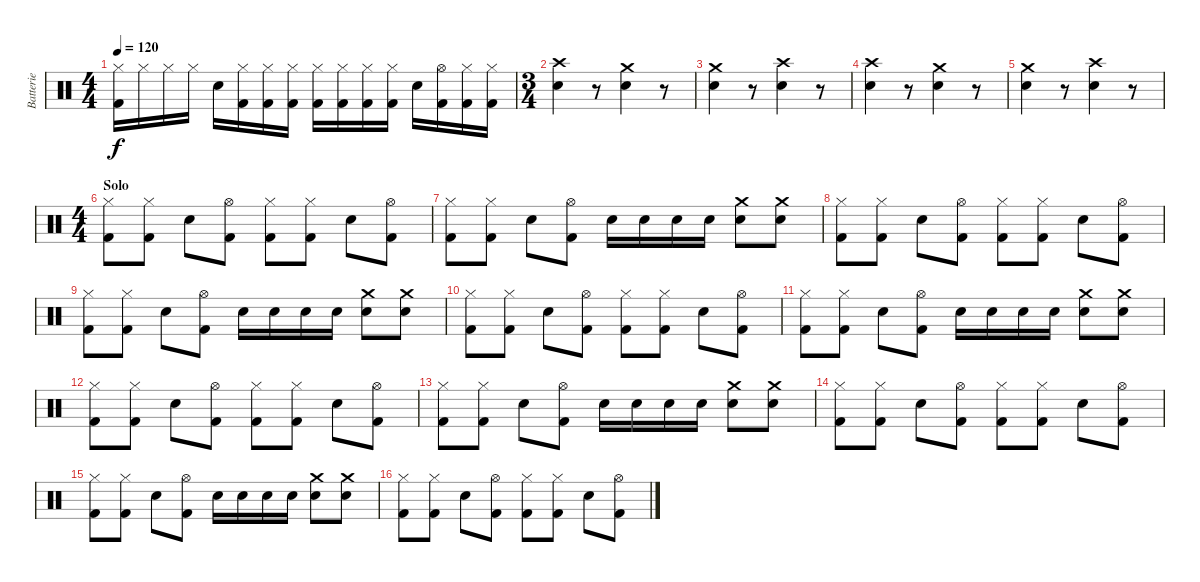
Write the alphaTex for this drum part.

\track ("Batterie" "Batterie") {instrument percussion}
\staff {score}
\articulation defaults
\ts (4 4)
\tempo 120
\clef neutral
\ks c
("Hi-Hat (closed)" "Kick (hit) 2").16{dy f} "Hi-Hat (closed)".16 "Hi-Hat (closed)".16 "Hi-Hat (closed)".16 "Snare (hit) 2".16 ("Hi-Hat (closed)" "Kick (hit) 2").16 ("Hi-Hat (closed)" "Kick (hit) 2").16 ("Hi-Hat (closed)" "Kick (hit) 2").16 ("Hi-Hat (closed)" "Kick (hit) 2").16 ("Hi-Hat (closed)" "Kick (hit) 2").16 ("Hi-Hat (closed)" "Kick (hit) 2").16 ("Hi-Hat (closed)" "Kick (hit) 2").16 "Snare (hit) 2".16 ("Hi-Hat (open)" "Kick (hit) 2").16 ("Hi-Hat (closed)" "Kick (hit) 2").16 ("Hi-Hat (closed)" "Kick (hit) 2").16 |
\ts (3 4)
("Crash high (hit)" "Snare (hit) 2").4 r.8 ("Crash medium (hit)" "Snare (hit) 2").4 r.8 |
("Crash medium (hit)" "Snare (hit) 2").4 r.8 ("Crash high (hit)" "Snare (hit) 2").4 r.8 |
("Crash high (hit)" "Snare (hit) 2").4 r.8 ("Crash medium (hit)" "Snare (hit) 2").4 r.8 |
("Crash medium (hit)" "Snare (hit) 2").4 r.8 ("Crash high (hit)" "Snare (hit) 2").4 r.8 |
\ts (4 4)
\section ("" "Solo")
("Hi-Hat (closed)" "Kick (hit) 2").8 ("Hi-Hat (closed)" "Kick (hit) 2").8 "Snare (hit) 2".8 ("Hi-Hat (open)" "Kick (hit) 2").8 ("Hi-Hat (closed)" "Kick (hit) 2").8 ("Hi-Hat (closed)" "Kick (hit) 2").8 "Snare (hit) 2".8 ("Hi-Hat (open)" "Kick (hit) 2").8 |
("Hi-Hat (closed)" "Kick (hit) 2").8 ("Hi-Hat (closed)" "Kick (hit) 2").8 "Snare (hit) 2".8 ("Hi-Hat (open)" "Kick (hit) 2").8 "Snare (hit) 2".16 "Snare (hit) 2".16 "Snare (hit) 2".16 "Snare (hit) 2".16 ("Crash medium (hit)" "Snare (hit) 2").8 ("Crash medium (hit)" "Snare (hit) 2").8 |
("Hi-Hat (closed)" "Kick (hit) 2").8 ("Hi-Hat (closed)" "Kick (hit) 2").8 "Snare (hit) 2".8 ("Hi-Hat (open)" "Kick (hit) 2").8 ("Hi-Hat (closed)" "Kick (hit) 2").8 ("Hi-Hat (closed)" "Kick (hit) 2").8 "Snare (hit) 2".8 ("Hi-Hat (open)" "Kick (hit) 2").8 |
("Hi-Hat (closed)" "Kick (hit) 2").8 ("Hi-Hat (closed)" "Kick (hit) 2").8 "Snare (hit) 2".8 ("Hi-Hat (open)" "Kick (hit) 2").8 "Snare (hit) 2".16 "Snare (hit) 2".16 "Snare (hit) 2".16 "Snare (hit) 2".16 ("Crash medium (hit)" "Snare (hit) 2").8 ("Crash medium (hit)" "Snare (hit) 2").8 |
("Hi-Hat (closed)" "Kick (hit) 2").8 ("Hi-Hat (closed)" "Kick (hit) 2").8 "Snare (hit) 2".8 ("Hi-Hat (open)" "Kick (hit) 2").8 ("Hi-Hat (closed)" "Kick (hit) 2").8 ("Hi-Hat (closed)" "Kick (hit) 2").8 "Snare (hit) 2".8 ("Hi-Hat (open)" "Kick (hit) 2").8 |
("Hi-Hat (closed)" "Kick (hit) 2").8 ("Hi-Hat (closed)" "Kick (hit) 2").8 "Snare (hit) 2".8 ("Hi-Hat (open)" "Kick (hit) 2").8 "Snare (hit) 2".16 "Snare (hit) 2".16 "Snare (hit) 2".16 "Snare (hit) 2".16 ("Crash medium (hit)" "Snare (hit) 2").8 ("Crash medium (hit)" "Snare (hit) 2").8 |
("Hi-Hat (closed)" "Kick (hit) 2").8 ("Hi-Hat (closed)" "Kick (hit) 2").8 "Snare (hit) 2".8 ("Hi-Hat (open)" "Kick (hit) 2").8 ("Hi-Hat (closed)" "Kick (hit) 2").8 ("Hi-Hat (closed)" "Kick (hit) 2").8 "Snare (hit) 2".8 ("Hi-Hat (open)" "Kick (hit) 2").8 |
("Hi-Hat (closed)" "Kick (hit) 2").8 ("Hi-Hat (closed)" "Kick (hit) 2").8 "Snare (hit) 2".8 ("Hi-Hat (open)" "Kick (hit) 2").8 "Snare (hit) 2".16 "Snare (hit) 2".16 "Snare (hit) 2".16 "Snare (hit) 2".16 ("Crash medium (hit)" "Snare (hit) 2").8 ("Crash medium (hit)" "Snare (hit) 2").8 |
("Hi-Hat (closed)" "Kick (hit) 2").8 ("Hi-Hat (closed)" "Kick (hit) 2").8 "Snare (hit) 2".8 ("Hi-Hat (open)" "Kick (hit) 2").8 ("Hi-Hat (closed)" "Kick (hit) 2").8 ("Hi-Hat (closed)" "Kick (hit) 2").8 "Snare (hit) 2".8 ("Hi-Hat (open)" "Kick (hit) 2").8 |
("Hi-Hat (closed)" "Kick (hit) 2").8 ("Hi-Hat (closed)" "Kick (hit) 2").8 "Snare (hit) 2".8 ("Hi-Hat (open)" "Kick (hit) 2").8 "Snare (hit) 2".16 "Snare (hit) 2".16 "Snare (hit) 2".16 "Snare (hit) 2".16 ("Crash medium (hit)" "Snare (hit) 2").8 ("Crash medium (hit)" "Snare (hit) 2").8 |
("Hi-Hat (closed)" "Kick (hit) 2").8 ("Hi-Hat (closed)" "Kick (hit) 2").8 "Snare (hit) 2".8 ("Hi-Hat (open)" "Kick (hit) 2").8 ("Hi-Hat (closed)" "Kick (hit) 2").8 ("Hi-Hat (closed)" "Kick (hit) 2").8 "Snare (hit) 2".8 ("Hi-Hat (open)" "Kick (hit) 2").8
